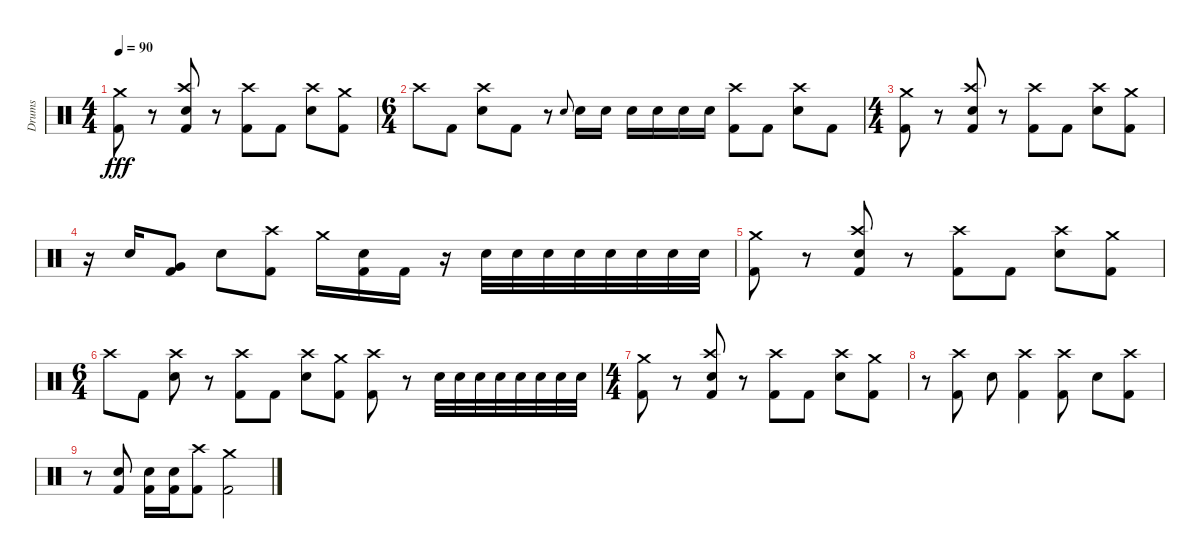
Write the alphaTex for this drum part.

\track ("Drums" "Drums") {instrument percussion}
\staff {score}
\articulation defaults
\ts (4 4)
\tempo 90
\clef neutral
\ks c
("Crash medium (hit)" "Kick (hit) 2").8{dy fff} r.8 ("Crash high (hit)" "Electric Snare (hit)" "Kick (hit) 2").8 r.8 ("Crash high (hit)" "Kick (hit) 2").8 "Kick (hit) 2".8 ("Crash high (hit)" "Electric Snare (hit)").8 ("Crash medium (hit)" "Kick (hit) 2").8 |
\ts (6 4)
"Crash high (hit)".8 "Kick (hit) 2".8 ("Crash high (hit)" "Electric Snare (hit)").8 "Kick (hit) 2".8 r.8 "Electric Snare (hit)".8{gr onbeat} "Electric Snare (hit)".16 "Electric Snare (hit)".16 "Electric Snare (hit)".16 "Electric Snare (hit)".16 "Electric Snare (hit)".16 "Electric Snare (hit)".16 ("Crash high (hit)" "Kick (hit) 2").8 "Kick (hit) 2".8 ("Crash high (hit)" "Electric Snare (hit)").8 "Kick (hit) 2".8 |
\ts (4 4)
("Crash medium (hit)" "Kick (hit) 2").8 r.8 ("Crash high (hit)" "Electric Snare (hit)" "Kick (hit) 2").8 r.8 ("Crash high (hit)" "Kick (hit) 2").8 "Kick (hit) 2".8 ("Crash high (hit)" "Electric Snare (hit)").8 ("Crash medium (hit)" "Kick (hit) 2").8 |
r.16 "Electric Snare (hit)".16 ("Very Low Tom (hit)" "Kick (hit) 2").8 "Electric Snare (hit)".8 ("Crash high (hit)" "Kick (hit) 2").8 "Crash medium (hit)".16 ("Electric Snare (hit)" "Kick (hit) 2").16 "Kick (hit) 2".16 r.16 "Electric Snare (hit)".32 "Electric Snare (hit)".32 "Electric Snare (hit)".32 "Electric Snare (hit)".32 "Electric Snare (hit)".32 "Electric Snare (hit)".32 "Electric Snare (hit)".32 "Electric Snare (hit)".32 |
("Crash medium (hit)" "Kick (hit) 2").8 r.8 ("Crash high (hit)" "Electric Snare (hit)" "Kick (hit) 2").8 r.8 ("Crash high (hit)" "Kick (hit) 2").8 "Kick (hit) 2".8 ("Crash high (hit)" "Electric Snare (hit)").8 ("Crash medium (hit)" "Kick (hit) 2").8 |
\ts (6 4)
"Crash high (hit)".8 "Kick (hit) 2".8 ("Crash high (hit)" "Electric Snare (hit)").8 r.8 ("Crash high (hit)" "Kick (hit) 2").8 "Kick (hit) 2".8 ("Crash high (hit)" "Electric Snare (hit)").8 ("Crash medium (hit)" "Kick (hit) 2").8 ("Crash high (hit)" "Kick (hit) 2").8 r.8 "Electric Snare (hit)".32 "Electric Snare (hit)".32 "Electric Snare (hit)".32 "Electric Snare (hit)".32 "Electric Snare (hit)".32 "Electric Snare (hit)".32 "Electric Snare (hit)".32 "Electric Snare (hit)".32 |
\ts (4 4)
("Crash medium (hit)" "Kick (hit) 2").8 r.8 ("Crash high (hit)" "Electric Snare (hit)" "Kick (hit) 2").8 r.8 ("Crash high (hit)" "Kick (hit) 2").8 "Kick (hit) 2".8 ("Crash high (hit)" "Electric Snare (hit)").8 ("Crash medium (hit)" "Kick (hit) 2").8 |
r.8 ("Crash high (hit)" "Kick (hit) 2").8 "Electric Snare (hit)".8 ("Crash high (hit)" "Kick (hit) 2").4 ("Crash high (hit)" "Kick (hit) 2").8 "Electric Snare (hit)".8 ("Crash high (hit)" "Kick (hit) 2").8 |
r.8 ("Electric Snare (hit)" "Kick (hit) 2").8 ("Electric Snare (hit)" "Kick (hit) 2").16 ("Electric Snare (hit)" "Kick (hit) 2").16 ("Crash high (hit)" "Kick (hit) 2").8 ("Crash medium (hit)" "Kick (hit) 2").2
